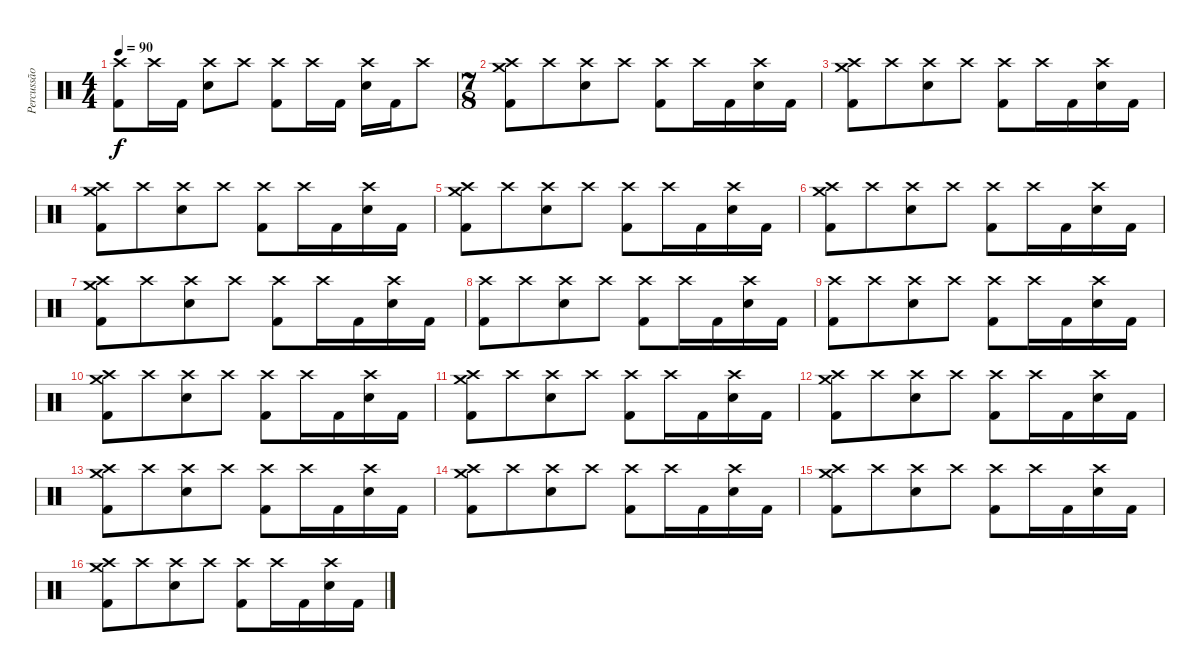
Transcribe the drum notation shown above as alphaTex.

\track ("Percussão" "Percussão") {instrument percussion}
\staff {score}
\articulation defaults
\ts (4 4)
\tempo 90
\clef neutral
\ks c
("Crash high (hit)" "Kick (hit) 2").8{dy f} "Crash high (hit)".16 "Kick (hit) 2".16 ("Crash high (hit)" "Electric Snare (hit)").8 "Crash high (hit)".8 ("Crash high (hit)" "Kick (hit) 2").8 "Crash high (hit)".16 "Kick (hit) 2".16 ("Crash high (hit)" "Electric Snare (hit)").16 "Kick (hit) 2".16 "Crash high (hit)".8 |
\ts (7 8)
("Crash medium (hit)" "Crash high (hit)" "Kick (hit) 2").8 "Crash high (hit)".8 ("Crash high (hit)" "Electric Snare (hit)").8 "Crash high (hit)".8 ("Crash high (hit)" "Kick (hit) 2").8 "Crash high (hit)".16 "Kick (hit) 2".16 ("Crash high (hit)" "Electric Snare (hit)").16 "Kick (hit) 2".16 |
("Crash medium (hit)" "Crash high (hit)" "Kick (hit) 2").8 "Crash high (hit)".8 ("Crash high (hit)" "Electric Snare (hit)").8 "Crash high (hit)".8 ("Crash high (hit)" "Kick (hit) 2").8 "Crash high (hit)".16 "Kick (hit) 2".16 ("Crash high (hit)" "Electric Snare (hit)").16 "Kick (hit) 2".16 |
("Crash medium (hit)" "Crash high (hit)" "Kick (hit) 2").8 "Crash high (hit)".8 ("Crash high (hit)" "Electric Snare (hit)").8 "Crash high (hit)".8 ("Crash high (hit)" "Kick (hit) 2").8 "Crash high (hit)".16 "Kick (hit) 2".16 ("Crash high (hit)" "Electric Snare (hit)").16 "Kick (hit) 2".16 |
("Crash medium (hit)" "Crash high (hit)" "Kick (hit) 2").8 "Crash high (hit)".8 ("Crash high (hit)" "Electric Snare (hit)").8 "Crash high (hit)".8 ("Crash high (hit)" "Kick (hit) 2").8 "Crash high (hit)".16 "Kick (hit) 2".16 ("Crash high (hit)" "Electric Snare (hit)").16 "Kick (hit) 2".16 |
("Crash medium (hit)" "Crash high (hit)" "Kick (hit) 2").8 "Crash high (hit)".8 ("Crash high (hit)" "Electric Snare (hit)").8 "Crash high (hit)".8 ("Crash high (hit)" "Kick (hit) 2").8 "Crash high (hit)".16 "Kick (hit) 2".16 ("Crash high (hit)" "Electric Snare (hit)").16 "Kick (hit) 2".16 |
("Crash medium (hit)" "Crash high (hit)" "Kick (hit) 2").8 "Crash high (hit)".8 ("Crash high (hit)" "Electric Snare (hit)").8 "Crash high (hit)".8 ("Crash high (hit)" "Kick (hit) 2").8 "Crash high (hit)".16 "Kick (hit) 2".16 ("Crash high (hit)" "Electric Snare (hit)").16 "Kick (hit) 2".16 |
("Crash high (hit)" "Kick (hit) 2").8 "Crash high (hit)".8 ("Crash high (hit)" "Electric Snare (hit)").8 "Crash high (hit)".8 ("Crash high (hit)" "Kick (hit) 2").8 "Crash high (hit)".16 "Kick (hit) 2".16 ("Crash high (hit)" "Electric Snare (hit)").16 "Kick (hit) 2".16 |
("Crash high (hit)" "Kick (hit) 2").8 "Crash high (hit)".8 ("Crash high (hit)" "Electric Snare (hit)").8 "Crash high (hit)".8 ("Crash high (hit)" "Kick (hit) 2").8 "Crash high (hit)".16 "Kick (hit) 2".16 ("Crash high (hit)" "Electric Snare (hit)").16 "Kick (hit) 2".16 |
("Crash medium (hit)" "Crash high (hit)" "Kick (hit) 2").8 "Crash high (hit)".8 ("Crash high (hit)" "Electric Snare (hit)").8 "Crash high (hit)".8 ("Crash high (hit)" "Kick (hit) 2").8 "Crash high (hit)".16 "Kick (hit) 2".16 ("Crash high (hit)" "Electric Snare (hit)").16 "Kick (hit) 2".16 |
("Crash medium (hit)" "Crash high (hit)" "Kick (hit) 2").8 "Crash high (hit)".8 ("Crash high (hit)" "Electric Snare (hit)").8 "Crash high (hit)".8 ("Crash high (hit)" "Kick (hit) 2").8 "Crash high (hit)".16 "Kick (hit) 2".16 ("Crash high (hit)" "Electric Snare (hit)").16 "Kick (hit) 2".16 |
("Crash medium (hit)" "Crash high (hit)" "Kick (hit) 2").8 "Crash high (hit)".8 ("Crash high (hit)" "Electric Snare (hit)").8 "Crash high (hit)".8 ("Crash high (hit)" "Kick (hit) 2").8 "Crash high (hit)".16 "Kick (hit) 2".16 ("Crash high (hit)" "Electric Snare (hit)").16 "Kick (hit) 2".16 |
("Crash medium (hit)" "Crash high (hit)" "Kick (hit) 2").8 "Crash high (hit)".8 ("Crash high (hit)" "Electric Snare (hit)").8 "Crash high (hit)".8 ("Crash high (hit)" "Kick (hit) 2").8 "Crash high (hit)".16 "Kick (hit) 2".16 ("Crash high (hit)" "Electric Snare (hit)").16 "Kick (hit) 2".16 |
("Crash medium (hit)" "Crash high (hit)" "Kick (hit) 2").8 "Crash high (hit)".8 ("Crash high (hit)" "Electric Snare (hit)").8 "Crash high (hit)".8 ("Crash high (hit)" "Kick (hit) 2").8 "Crash high (hit)".16 "Kick (hit) 2".16 ("Crash high (hit)" "Electric Snare (hit)").16 "Kick (hit) 2".16 |
("Crash medium (hit)" "Crash high (hit)" "Kick (hit) 2").8 "Crash high (hit)".8 ("Crash high (hit)" "Electric Snare (hit)").8 "Crash high (hit)".8 ("Crash high (hit)" "Kick (hit) 2").8 "Crash high (hit)".16 "Kick (hit) 2".16 ("Crash high (hit)" "Electric Snare (hit)").16 "Kick (hit) 2".16 |
("Crash medium (hit)" "Crash high (hit)" "Kick (hit) 2").8 "Crash high (hit)".8 ("Crash high (hit)" "Electric Snare (hit)").8 "Crash high (hit)".8 ("Crash high (hit)" "Kick (hit) 2").8 "Crash high (hit)".16 "Kick (hit) 2".16 ("Crash high (hit)" "Electric Snare (hit)").16 "Kick (hit) 2".16
